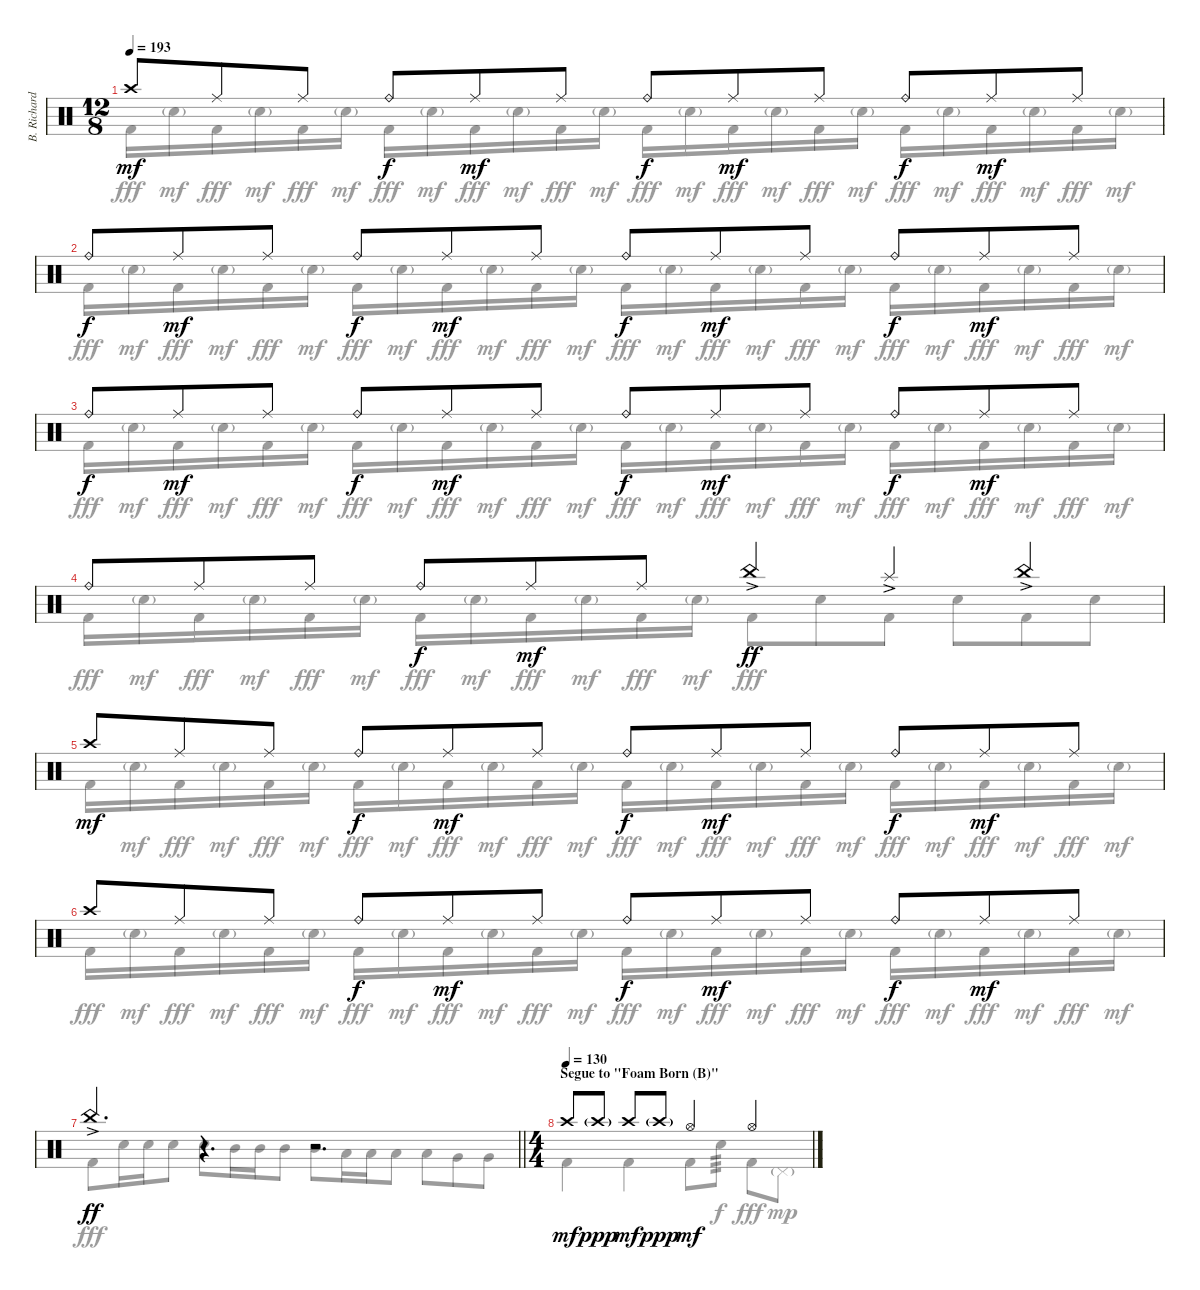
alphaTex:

\track ("B. Richardson Drums" "B. Richard") {instrument percussion}
\staff {score}
\articulation defaults
\voice
\ts (12 8)
\tempo 193
\clef neutral
\ks c "Crash high (hit)".8{dy mf} "Ride (middle)".8 "Ride (middle)".8 "Ride (bell)".8{dy f} "Ride (middle)".8{dy mf} "Ride (middle)".8 "Ride (bell)".8{dy f} "Ride (middle)".8{dy mf} "Ride (middle)".8 "Ride (bell)".8{dy f} "Ride (middle)".8{dy mf} "Ride (middle)".8
|
"Ride (bell)".8{dy f} "Ride (middle)".8{dy mf} "Ride (middle)".8 "Ride (bell)".8{dy f} "Ride (middle)".8{dy mf} "Ride (middle)".8 "Ride (bell)".8{dy f} "Ride (middle)".8{dy mf} "Ride (middle)".8 "Ride (bell)".8{dy f} "Ride (middle)".8{dy mf} "Ride (middle)".8 |
"Ride (bell)".8{dy f} "Ride (middle)".8{dy mf} "Ride (middle)".8 "Ride (bell)".8{dy f} "Ride (middle)".8{dy mf} "Ride (middle)".8 "Ride (bell)".8{dy f} "Ride (middle)".8{dy mf} "Ride (middle)".8 "Ride (bell)".8{dy f} "Ride (middle)".8{dy mf} "Ride (middle)".8 |
"Ride (bell)".8 "Ride (middle)".8 "Ride (middle)".8 "Ride (bell)".8{dy f} "Ride (middle)".8{dy mf} "Ride (middle)".8 "China (hit)"{ac}.4{dy ff} "Splash (hit)"{ac}.4 "China (hit)"{ac}.4 |
"Crash high (hit)".8{dy mf} "Ride (middle)".8 "Ride (middle)".8 "Ride (bell)".8{dy f} "Ride (middle)".8{dy mf} "Ride (middle)".8 "Ride (bell)".8{dy f} "Ride (middle)".8{dy mf} "Ride (middle)".8 "Ride (bell)".8{dy f} "Ride (middle)".8{dy mf} "Ride (middle)".8 |
"Crash high (hit)".8 "Ride (middle)".8 "Ride (middle)".8 "Ride (bell)".8{dy f} "Ride (middle)".8{dy mf} "Ride (middle)".8 "Ride (bell)".8{dy f} "Ride (middle)".8{dy mf} "Ride (middle)".8 "Ride (bell)".8{dy f} "Ride (middle)".8{dy mf} "Ride (middle)".8 |
\barLineRight lightlight "China (hit)"{ac}.4{d dy ff}
r.4{d} r.2{d} |
\ts (4 4)
\section ("" "Segue to \"Foam Born (B)\"")
\tempo (130)
"Crash high (hit)".8{dy mf} "Crash high (hit)"{g}.8{dy ppp} "Crash high (hit)".8{dy mf} "Crash high (hit)"{g}.8{dy ppp} "Hi-Hat (open)".4{dy mf} "Hi-Hat (open)".4
\voice
\clef neutral
\ottava regular
\simile none
\ks c "Kick (hit) 2".16{dy fff} "Electric Snare (hit)"{g}.16{dy mf} "Kick (hit) 2".16{dy fff} "Electric Snare (hit)"{g}.16{dy mf} "Kick (hit) 2".16{dy fff} "Electric Snare (hit)"{g}.16{dy mf} "Kick (hit) 2".16{dy fff} "Electric Snare (hit)"{g}.16{dy mf} "Kick (hit) 2".16{dy fff} "Electric Snare (hit)"{g}.16{dy mf} "Kick (hit) 2".16{dy fff} "Electric Snare (hit)"{g}.16{dy mf} "Kick (hit) 2".16{dy fff} "Electric Snare (hit)"{g}.16{dy mf} "Kick (hit) 2".16{dy fff} "Electric Snare (hit)"{g}.16{dy mf} "Kick (hit) 2".16{dy fff} "Electric Snare (hit)"{g}.16{dy mf} "Kick (hit) 2".16{dy fff} "Electric Snare (hit)"{g}.16{dy mf} "Kick (hit) 2".16{dy fff} "Electric Snare (hit)"{g}.16{dy mf} "Kick (hit) 2".16{dy fff} "Electric Snare (hit)"{g}.16{dy mf}
|
"Kick (hit) 2".16{dy fff} "Electric Snare (hit)"{g}.16{dy mf} "Kick (hit) 2".16{dy fff} "Electric Snare (hit)"{g}.16{dy mf} "Kick (hit) 2".16{dy fff} "Electric Snare (hit)"{g}.16{dy mf} "Kick (hit) 2".16{dy fff} "Electric Snare (hit)"{g}.16{dy mf} "Kick (hit) 2".16{dy fff} "Electric Snare (hit)"{g}.16{dy mf} "Kick (hit) 2".16{dy fff} "Electric Snare (hit)"{g}.16{dy mf} "Kick (hit) 2".16{dy fff} "Electric Snare (hit)"{g}.16{dy mf} "Kick (hit) 2".16{dy fff} "Electric Snare (hit)"{g}.16{dy mf} "Kick (hit) 2".16{dy fff} "Electric Snare (hit)"{g}.16{dy mf} "Kick (hit) 2".16{dy fff} "Electric Snare (hit)"{g}.16{dy mf} "Kick (hit) 2".16{dy fff} "Electric Snare (hit)"{g}.16{dy mf} "Kick (hit) 2".16{dy fff} "Electric Snare (hit)"{g}.16{dy mf} |
"Kick (hit) 2".16{dy fff} "Electric Snare (hit)"{g}.16{dy mf} "Kick (hit) 2".16{dy fff} "Electric Snare (hit)"{g}.16{dy mf} "Kick (hit) 2".16{dy fff} "Electric Snare (hit)"{g}.16{dy mf} "Kick (hit) 2".16{dy fff} "Electric Snare (hit)"{g}.16{dy mf} "Kick (hit) 2".16{dy fff} "Electric Snare (hit)"{g}.16{dy mf} "Kick (hit) 2".16{dy fff} "Electric Snare (hit)"{g}.16{dy mf} "Kick (hit) 2".16{dy fff} "Electric Snare (hit)"{g}.16{dy mf} "Kick (hit) 2".16{dy fff} "Electric Snare (hit)"{g}.16{dy mf} "Kick (hit) 2".16{dy fff} "Electric Snare (hit)"{g}.16{dy mf} "Kick (hit) 2".16{dy fff} "Electric Snare (hit)"{g}.16{dy mf} "Kick (hit) 2".16{dy fff} "Electric Snare (hit)"{g}.16{dy mf} "Kick (hit) 2".16{dy fff} "Electric Snare (hit)"{g}.16{dy mf} |
"Kick (hit) 2".16{dy fff} "Electric Snare (hit)"{g}.16{dy mf} "Kick (hit) 2".16{dy fff} "Electric Snare (hit)"{g}.16{dy mf} "Kick (hit) 2".16{dy fff} "Electric Snare (hit)"{g}.16{dy mf} "Kick (hit) 2".16{dy fff} "Electric Snare (hit)"{g}.16{dy mf} "Kick (hit) 2".16{dy fff} "Electric Snare (hit)"{g}.16{dy mf} "Kick (hit) 2".16{dy fff} "Electric Snare (hit)"{g}.16{dy mf} "Kick (hit) 2".8{dy fff} "Electric Snare (hit)".8 "Kick (hit) 2".8 "Electric Snare (hit)".8 "Kick (hit) 2".8 "Electric Snare (hit)".8 |
"Kick (hit) 2".16 "Electric Snare (hit)"{g}.16{dy mf} "Kick (hit) 2".16{dy fff} "Electric Snare (hit)"{g}.16{dy mf} "Kick (hit) 2".16{dy fff} "Electric Snare (hit)"{g}.16{dy mf} "Kick (hit) 2".16{dy fff} "Electric Snare (hit)"{g}.16{dy mf} "Kick (hit) 2".16{dy fff} "Electric Snare (hit)"{g}.16{dy mf} "Kick (hit) 2".16{dy fff} "Electric Snare (hit)"{g}.16{dy mf} "Kick (hit) 2".16{dy fff} "Electric Snare (hit)"{g}.16{dy mf} "Kick (hit) 2".16{dy fff} "Electric Snare (hit)"{g}.16{dy mf} "Kick (hit) 2".16{dy fff} "Electric Snare (hit)"{g}.16{dy mf} "Kick (hit) 2".16{dy fff} "Electric Snare (hit)"{g}.16{dy mf} "Kick (hit) 2".16{dy fff} "Electric Snare (hit)"{g}.16{dy mf} "Kick (hit) 2".16{dy fff} "Electric Snare (hit)"{g}.16{dy mf} |
"Kick (hit) 2".16{dy fff} "Electric Snare (hit)"{g}.16{dy mf} "Kick (hit) 2".16{dy fff} "Electric Snare (hit)"{g}.16{dy mf} "Kick (hit) 2".16{dy fff} "Electric Snare (hit)"{g}.16{dy mf} "Kick (hit) 2".16{dy fff} "Electric Snare (hit)"{g}.16{dy mf} "Kick (hit) 2".16{dy fff} "Electric Snare (hit)"{g}.16{dy mf} "Kick (hit) 2".16{dy fff} "Electric Snare (hit)"{g}.16{dy mf} "Kick (hit) 2".16{dy fff} "Electric Snare (hit)"{g}.16{dy mf} "Kick (hit) 2".16{dy fff} "Electric Snare (hit)"{g}.16{dy mf} "Kick (hit) 2".16{dy fff} "Electric Snare (hit)"{g}.16{dy mf} "Kick (hit) 2".16{dy fff} "Electric Snare (hit)"{g}.16{dy mf} "Kick (hit) 2".16{dy fff} "Electric Snare (hit)"{g}.16{dy mf} "Kick (hit) 2".16{dy fff} "Electric Snare (hit)"{g}.16{dy mf} |
\barLineRight lightlight "Kick (hit) 2".8{dy fff} "Electric Snare (hit)".16 "Electric Snare (hit)".16 "Electric Snare (hit)".8 "Electric Snare (hit)".8 "Mid Tom (hit)".16 "Mid Tom (hit)".16 "Mid Tom (hit)".8 "Mid Tom (hit)".8 "Low Tom (hit)".16 "Low Tom (hit)".16 "Low Tom (hit)".8 "Low Tom (hit)".8 "Very Low Tom (hit)".8 "Very Low Tom (hit)".8
|
"Kick (hit) 2".4 "Kick (hit) 2".4 "Kick (hit) 2".8 "Electric Snare (hit)".8{tp 3 dy f} "Kick (hit) 2".8{dy fff} "Pedal Hi-Hat (hit)"{g}.8{dy mp}
